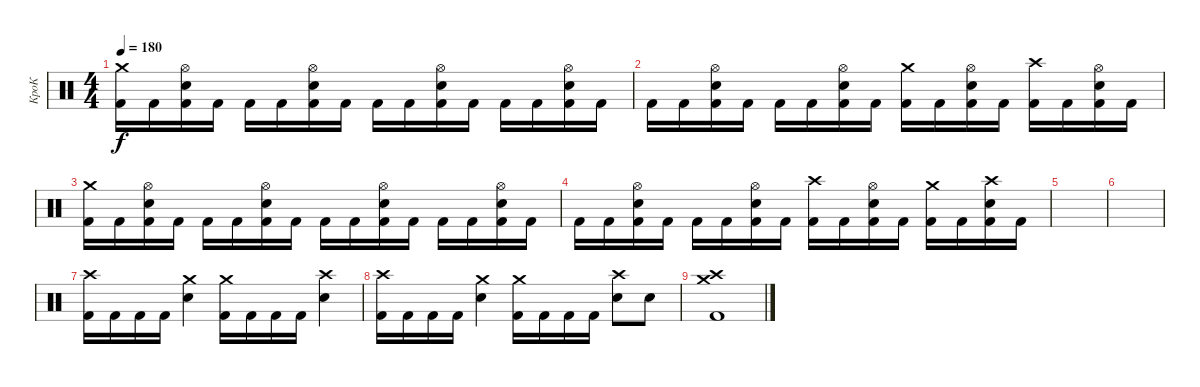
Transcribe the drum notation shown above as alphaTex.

\track ("КроК" "КроК") {instrument percussion}
\staff {score}
\articulation defaults
\ts (4 4)
\tempo 180
\clef neutral
\ks c
("Kick (hit) 2" "Crash medium (hit)").16{dy f} "Kick (hit) 2".16 ("Kick (hit) 2" "Electric Snare (hit)" "Hi-Hat (open)").16 "Kick (hit) 2".16 "Kick (hit) 2".16 "Kick (hit) 2".16 ("Kick (hit) 2" "Electric Snare (hit)" "Hi-Hat (open)").16 "Kick (hit) 2".16 "Kick (hit) 2".16 "Kick (hit) 2".16 ("Kick (hit) 2" "Electric Snare (hit)" "Hi-Hat (open)").16 "Kick (hit) 2".16 "Kick (hit) 2".16 "Kick (hit) 2".16 ("Kick (hit) 2" "Electric Snare (hit)" "Hi-Hat (open)").16 "Kick (hit) 2".16 |
"Kick (hit) 2".16 "Kick (hit) 2".16 ("Kick (hit) 2" "Electric Snare (hit)" "Hi-Hat (open)").16 "Kick (hit) 2".16 "Kick (hit) 2".16 "Kick (hit) 2".16 ("Kick (hit) 2" "Electric Snare (hit)" "Hi-Hat (open)").16 "Kick (hit) 2".16 ("Kick (hit) 2" "Crash medium (hit)").16 "Kick (hit) 2".16 ("Kick (hit) 2" "Electric Snare (hit)" "Hi-Hat (open)").16 "Kick (hit) 2".16 ("Kick (hit) 2" "Crash high (hit)").16 "Kick (hit) 2".16 ("Kick (hit) 2" "Electric Snare (hit)" "Hi-Hat (open)").16 "Kick (hit) 2".16 |
("Kick (hit) 2" "Crash medium (hit)").16 "Kick (hit) 2".16 ("Kick (hit) 2" "Electric Snare (hit)" "Hi-Hat (open)").16 "Kick (hit) 2".16 "Kick (hit) 2".16 "Kick (hit) 2".16 ("Kick (hit) 2" "Electric Snare (hit)" "Hi-Hat (open)").16 "Kick (hit) 2".16 "Kick (hit) 2".16 "Kick (hit) 2".16 ("Kick (hit) 2" "Electric Snare (hit)" "Hi-Hat (open)").16 "Kick (hit) 2".16 "Kick (hit) 2".16 "Kick (hit) 2".16 ("Kick (hit) 2" "Electric Snare (hit)" "Hi-Hat (open)").16 "Kick (hit) 2".16 |
"Kick (hit) 2".16 "Kick (hit) 2".16 ("Kick (hit) 2" "Electric Snare (hit)" "Hi-Hat (open)").16 "Kick (hit) 2".16 "Kick (hit) 2".16 "Kick (hit) 2".16 ("Kick (hit) 2" "Electric Snare (hit)" "Hi-Hat (open)").16 "Kick (hit) 2".16 ("Kick (hit) 2" "Crash high (hit)").16 "Kick (hit) 2".16 ("Kick (hit) 2" "Electric Snare (hit)" "Hi-Hat (open)").16 "Kick (hit) 2".16 ("Kick (hit) 2" "Crash medium (hit)").16 "Kick (hit) 2".16 ("Kick (hit) 2" "Electric Snare (hit)" "Crash high (hit)").16 "Kick (hit) 2".16 |
|
|
("Crash high (hit)" "Kick (hit) 2").16 "Kick (hit) 2".16 "Kick (hit) 2".16 "Kick (hit) 2".16 ("Crash medium (hit)" "Electric Snare (hit)").4 ("Crash medium (hit)" "Kick (hit) 2").16 "Kick (hit) 2".16 "Kick (hit) 2".16 "Kick (hit) 2".16 ("Crash high (hit)" "Electric Snare (hit)").4 |
("Crash high (hit)" "Kick (hit) 2").16 "Kick (hit) 2".16 "Kick (hit) 2".16 "Kick (hit) 2".16 ("Crash medium (hit)" "Electric Snare (hit)").4 ("Crash medium (hit)" "Kick (hit) 2").16 "Kick (hit) 2".16 "Kick (hit) 2".16 "Kick (hit) 2".16 ("Crash high (hit)" "Electric Snare (hit)").8 "Electric Snare (hit)".8 |
("Crash medium (hit)" "Crash high (hit)" "Kick (hit) 2").1
